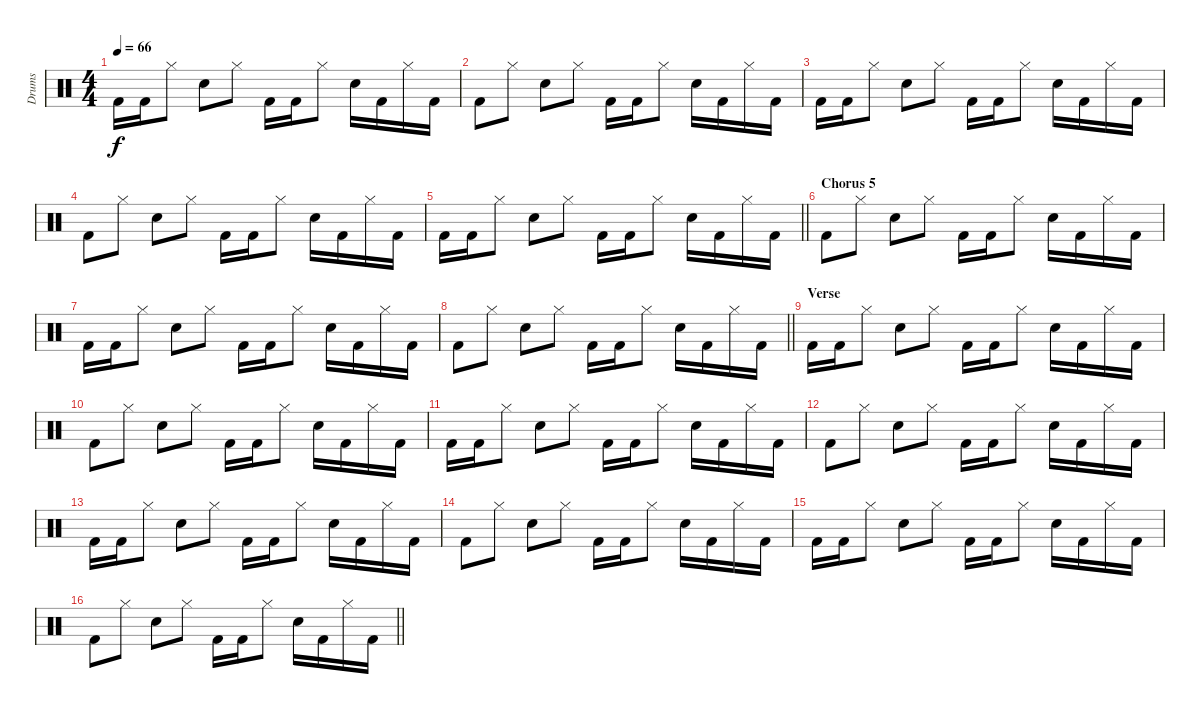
\track ("Drums" "Drums") {instrument percussion}
\staff {score}
\articulation defaults
\ts (4 4)
\tempo 66
\clef neutral
\ks c "Kick (hit) 2".16{dy f} "Kick (hit) 2".16 "Hi-Hat (closed)".8 "Snare (hit) 2".8 "Hi-Hat (closed)".8 "Kick (hit) 2".16 "Kick (hit) 2".16 "Hi-Hat (closed)".8 "Snare (hit) 2".16 "Kick (hit) 2".16 "Hi-Hat (closed)".16 "Kick (hit) 2".16
|
"Kick (hit) 2".8 "Hi-Hat (closed)".8 "Snare (hit) 2".8 "Hi-Hat (closed)".8 "Kick (hit) 2".16 "Kick (hit) 2".16 "Hi-Hat (closed)".8 "Snare (hit) 2".16 "Kick (hit) 2".16 "Hi-Hat (closed)".16 "Kick (hit) 2".16 |
"Kick (hit) 2".16 "Kick (hit) 2".16 "Hi-Hat (closed)".8 "Snare (hit) 2".8 "Hi-Hat (closed)".8 "Kick (hit) 2".16 "Kick (hit) 2".16 "Hi-Hat (closed)".8 "Snare (hit) 2".16 "Kick (hit) 2".16 "Hi-Hat (closed)".16 "Kick (hit) 2".16 |
"Kick (hit) 2".8 "Hi-Hat (closed)".8 "Snare (hit) 2".8 "Hi-Hat (closed)".8 "Kick (hit) 2".16 "Kick (hit) 2".16 "Hi-Hat (closed)".8 "Snare (hit) 2".16 "Kick (hit) 2".16 "Hi-Hat (closed)".16 "Kick (hit) 2".16 |
\barLineRight lightlight "Kick (hit) 2".16 "Kick (hit) 2".16 "Hi-Hat (closed)".8 "Snare (hit) 2".8 "Hi-Hat (closed)".8 "Kick (hit) 2".16 "Kick (hit) 2".16 "Hi-Hat (closed)".8 "Snare (hit) 2".16 "Kick (hit) 2".16 "Hi-Hat (closed)".16 "Kick (hit) 2".16
|
\section ("" "Chorus 5")
"Kick (hit) 2".8 "Hi-Hat (closed)".8 "Snare (hit) 2".8 "Hi-Hat (closed)".8 "Kick (hit) 2".16 "Kick (hit) 2".16 "Hi-Hat (closed)".8 "Snare (hit) 2".16 "Kick (hit) 2".16 "Hi-Hat (closed)".16 "Kick (hit) 2".16 |
"Kick (hit) 2".16 "Kick (hit) 2".16 "Hi-Hat (closed)".8 "Snare (hit) 2".8 "Hi-Hat (closed)".8 "Kick (hit) 2".16 "Kick (hit) 2".16 "Hi-Hat (closed)".8 "Snare (hit) 2".16 "Kick (hit) 2".16 "Hi-Hat (closed)".16 "Kick (hit) 2".16 |
\barLineRight lightlight "Kick (hit) 2".8 "Hi-Hat (closed)".8 "Snare (hit) 2".8 "Hi-Hat (closed)".8 "Kick (hit) 2".16 "Kick (hit) 2".16 "Hi-Hat (closed)".8 "Snare (hit) 2".16 "Kick (hit) 2".16 "Hi-Hat (closed)".16 "Kick (hit) 2".16
|
\section ("" "Verse")
"Kick (hit) 2".16 "Kick (hit) 2".16 "Hi-Hat (closed)".8 "Snare (hit) 2".8 "Hi-Hat (closed)".8 "Kick (hit) 2".16 "Kick (hit) 2".16 "Hi-Hat (closed)".8 "Snare (hit) 2".16 "Kick (hit) 2".16 "Hi-Hat (closed)".16 "Kick (hit) 2".16 |
"Kick (hit) 2".8 "Hi-Hat (closed)".8 "Snare (hit) 2".8 "Hi-Hat (closed)".8 "Kick (hit) 2".16 "Kick (hit) 2".16 "Hi-Hat (closed)".8 "Snare (hit) 2".16 "Kick (hit) 2".16 "Hi-Hat (closed)".16 "Kick (hit) 2".16 |
"Kick (hit) 2".16 "Kick (hit) 2".16 "Hi-Hat (closed)".8 "Snare (hit) 2".8 "Hi-Hat (closed)".8 "Kick (hit) 2".16 "Kick (hit) 2".16 "Hi-Hat (closed)".8 "Snare (hit) 2".16 "Kick (hit) 2".16 "Hi-Hat (closed)".16 "Kick (hit) 2".16 |
"Kick (hit) 2".8 "Hi-Hat (closed)".8 "Snare (hit) 2".8 "Hi-Hat (closed)".8 "Kick (hit) 2".16 "Kick (hit) 2".16 "Hi-Hat (closed)".8 "Snare (hit) 2".16 "Kick (hit) 2".16 "Hi-Hat (closed)".16 "Kick (hit) 2".16 |
"Kick (hit) 2".16 "Kick (hit) 2".16 "Hi-Hat (closed)".8 "Snare (hit) 2".8 "Hi-Hat (closed)".8 "Kick (hit) 2".16 "Kick (hit) 2".16 "Hi-Hat (closed)".8 "Snare (hit) 2".16 "Kick (hit) 2".16 "Hi-Hat (closed)".16 "Kick (hit) 2".16 |
"Kick (hit) 2".8 "Hi-Hat (closed)".8 "Snare (hit) 2".8 "Hi-Hat (closed)".8 "Kick (hit) 2".16 "Kick (hit) 2".16 "Hi-Hat (closed)".8 "Snare (hit) 2".16 "Kick (hit) 2".16 "Hi-Hat (closed)".16 "Kick (hit) 2".16 |
"Kick (hit) 2".16 "Kick (hit) 2".16 "Hi-Hat (closed)".8 "Snare (hit) 2".8 "Hi-Hat (closed)".8 "Kick (hit) 2".16 "Kick (hit) 2".16 "Hi-Hat (closed)".8 "Snare (hit) 2".16 "Kick (hit) 2".16 "Hi-Hat (closed)".16 "Kick (hit) 2".16 |
\barLineRight lightlight "Kick (hit) 2".8 "Hi-Hat (closed)".8 "Snare (hit) 2".8 "Hi-Hat (closed)".8 "Kick (hit) 2".16 "Kick (hit) 2".16 "Hi-Hat (closed)".8 "Snare (hit) 2".16 "Kick (hit) 2".16 "Hi-Hat (closed)".16 "Kick (hit) 2".16
